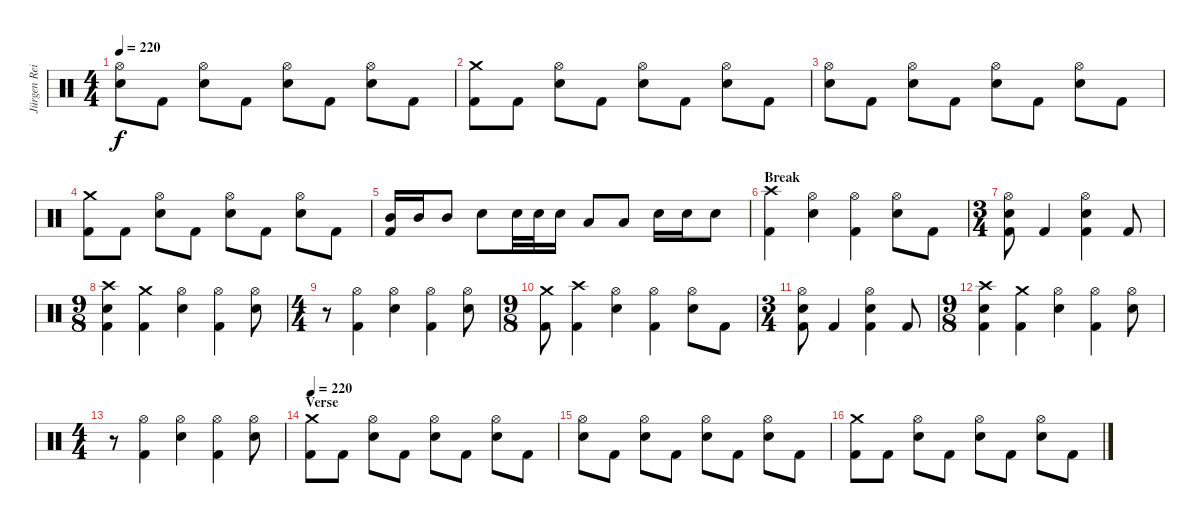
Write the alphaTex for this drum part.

\track ("Jürgen Reil" "Jürgen Rei") {instrument percussion}
\staff {score}
\articulation defaults
\ts (4 4)
\tempo 220
\clef neutral
\ks c
("Hi-Hat (open)" "Electric Snare (hit)").8{dy f} "Kick (hit) 2".8 ("Hi-Hat (open)" "Electric Snare (hit)").8 "Kick (hit) 2".8 ("Hi-Hat (open)" "Electric Snare (hit)").8 "Kick (hit) 2".8 ("Hi-Hat (open)" "Electric Snare (hit)").8 "Kick (hit) 2".8 |
("Crash medium (hit)" "Kick (hit) 2").8 "Kick (hit) 2".8 ("Hi-Hat (open)" "Electric Snare (hit)").8 "Kick (hit) 2".8 ("Hi-Hat (open)" "Electric Snare (hit)").8 "Kick (hit) 2".8 ("Hi-Hat (open)" "Electric Snare (hit)").8 "Kick (hit) 2".8 |
("Hi-Hat (open)" "Electric Snare (hit)").8 "Kick (hit) 2".8 ("Hi-Hat (open)" "Electric Snare (hit)").8 "Kick (hit) 2".8 ("Hi-Hat (open)" "Electric Snare (hit)").8 "Kick (hit) 2".8 ("Hi-Hat (open)" "Electric Snare (hit)").8 "Kick (hit) 2".8 |
("Crash medium (hit)" "Kick (hit) 2").8 "Kick (hit) 2".8 ("Hi-Hat (open)" "Electric Snare (hit)").8 "Kick (hit) 2".8 ("Hi-Hat (open)" "Electric Snare (hit)").8 "Kick (hit) 2".8 ("Hi-Hat (open)" "Electric Snare (hit)").8 "Kick (hit) 2".8 |
("Mid Tom (hit)" "Kick (hit) 2").16 "Mid Tom (hit)".16 "Mid Tom (hit)".8 "Electric Snare (hit)".8 "Electric Snare (hit)".32 "Electric Snare (hit)".32 "Electric Snare (hit)".16 "Low Tom (hit)".8 "Low Tom (hit)".8 "Electric Snare (hit)".16 "Electric Snare (hit)".16 "Electric Snare (hit)".8 |
\section ("" "Break")
("Crash high (hit)" "Kick (hit) 2").4 ("Hi-Hat (open)" "Electric Snare (hit)").4 ("Hi-Hat (open)" "Kick (hit) 2").4 ("Hi-Hat (open)" "Electric Snare (hit)").8 "Kick (hit) 2".8 |
\ts (3 4)
("Hi-Hat (open)" "Electric Snare (hit)" "Kick (hit) 2").8 "Kick (hit) 2".4 ("Hi-Hat (open)" "Electric Snare (hit)" "Kick (hit) 2").4 "Kick (hit) 2".8 |
\ts (9 8)
("Crash high (hit)" "Electric Snare (hit)" "Kick (hit) 2").4 ("Crash medium (hit)" "Kick (hit) 2").4 ("Hi-Hat (open)" "Electric Snare (hit)").4 ("Hi-Hat (open)" "Kick (hit) 2").4 ("Hi-Hat (open)" "Electric Snare (hit)").8 |
\ts (4 4)
r.8 ("Hi-Hat (open)" "Kick (hit) 2").4 ("Hi-Hat (open)" "Electric Snare (hit)").4 ("Hi-Hat (open)" "Kick (hit) 2").4 ("Hi-Hat (open)" "Electric Snare (hit)").8 |
\ts (9 8)
("Crash medium (hit)" "Kick (hit) 2").8 ("Crash high (hit)" "Kick (hit) 2").4 ("Hi-Hat (open)" "Electric Snare (hit)").4 ("Hi-Hat (open)" "Kick (hit) 2").4 ("Hi-Hat (open)" "Electric Snare (hit)").8 "Kick (hit) 2".8 |
\ts (3 4)
("Hi-Hat (open)" "Electric Snare (hit)" "Kick (hit) 2").8 "Kick (hit) 2".4 ("Hi-Hat (open)" "Electric Snare (hit)" "Kick (hit) 2").4 "Kick (hit) 2".8 |
\ts (9 8)
("Crash high (hit)" "Electric Snare (hit)" "Kick (hit) 2").4 ("Crash medium (hit)" "Kick (hit) 2").4 ("Hi-Hat (open)" "Electric Snare (hit)").4 ("Hi-Hat (open)" "Kick (hit) 2").4 ("Hi-Hat (open)" "Electric Snare (hit)").8 |
\ts (4 4)
r.8 ("Hi-Hat (open)" "Kick (hit) 2").4 ("Hi-Hat (open)" "Electric Snare (hit)").4 ("Hi-Hat (open)" "Kick (hit) 2").4 ("Hi-Hat (open)" "Electric Snare (hit)").8 |
\section ("" "Verse")
\tempo 220
("Crash medium (hit)" "Kick (hit) 2").8 "Kick (hit) 2".8 ("Hi-Hat (open)" "Electric Snare (hit)").8 "Kick (hit) 2".8 ("Hi-Hat (open)" "Electric Snare (hit)").8 "Kick (hit) 2".8 ("Hi-Hat (open)" "Electric Snare (hit)").8 "Kick (hit) 2".8 |
("Hi-Hat (open)" "Electric Snare (hit)").8 "Kick (hit) 2".8 ("Hi-Hat (open)" "Electric Snare (hit)").8 "Kick (hit) 2".8 ("Hi-Hat (open)" "Electric Snare (hit)").8 "Kick (hit) 2".8 ("Hi-Hat (open)" "Electric Snare (hit)").8 "Kick (hit) 2".8 |
("Crash medium (hit)" "Kick (hit) 2").8 "Kick (hit) 2".8 ("Hi-Hat (open)" "Electric Snare (hit)").8 "Kick (hit) 2".8 ("Hi-Hat (open)" "Electric Snare (hit)").8 "Kick (hit) 2".8 ("Hi-Hat (open)" "Electric Snare (hit)").8 "Kick (hit) 2".8
